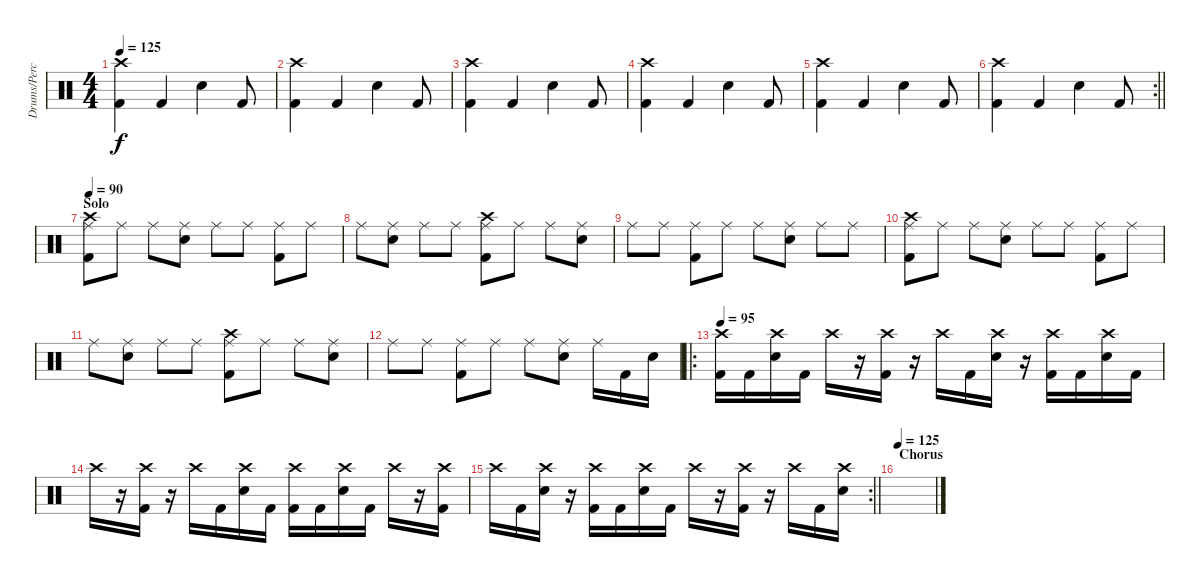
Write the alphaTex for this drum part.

\track ("Drums/Perc" "Drums/Perc") {instrument percussion}
\staff {score}
\articulation defaults
\ts (4 4)
\tempo 125
\clef neutral
\ks c
("Crash high (hit)" "Kick (hit) 2").4{dy f} "Kick (hit) 2".4 "Snare (hit) 2".4 "Kick (hit) 2".8 |
("Crash high (hit)" "Kick (hit) 2").4 "Kick (hit) 2".4 "Snare (hit) 2".4 "Kick (hit) 2".8 |
("Crash high (hit)" "Kick (hit) 2").4 "Kick (hit) 2".4 "Snare (hit) 2".4 "Kick (hit) 2".8 |
("Crash high (hit)" "Kick (hit) 2").4 "Kick (hit) 2".4 "Snare (hit) 2".4 "Kick (hit) 2".8 |
("Crash high (hit)" "Kick (hit) 2").4 "Kick (hit) 2".4 "Snare (hit) 2".4 "Kick (hit) 2".8 |
\rc 2
\barLineRight lightlight
("Crash high (hit)" "Kick (hit) 2").4 "Kick (hit) 2".4 "Snare (hit) 2".4 "Kick (hit) 2".8 |
\section ("" "Solo")
\tempo 90
("Crash high (hit)" "Ride (middle)" "Kick (hit) 2").8 "Ride (middle)".8 "Ride (middle)".8 ("Ride (middle)" "Snare (hit) 2").8 "Ride (middle)".8 "Ride (middle)".8 ("Ride (middle)" "Kick (hit) 2").8 "Ride (middle)".8 |
"Ride (middle)".8 ("Ride (middle)" "Snare (hit) 2").8 "Ride (middle)".8 "Ride (middle)".8 ("Crash high (hit)" "Ride (middle)" "Kick (hit) 2").8 "Ride (middle)".8 "Ride (middle)".8 ("Ride (middle)" "Snare (hit) 2").8 |
"Ride (middle)".8 "Ride (middle)".8 ("Ride (middle)" "Kick (hit) 2").8 "Ride (middle)".8 "Ride (middle)".8 ("Ride (middle)" "Snare (hit) 2").8 "Ride (middle)".8 "Ride (middle)".8 |
("Crash high (hit)" "Ride (middle)" "Kick (hit) 2").8 "Ride (middle)".8 "Ride (middle)".8 ("Ride (middle)" "Snare (hit) 2").8 "Ride (middle)".8 "Ride (middle)".8 ("Ride (middle)" "Kick (hit) 2").8 "Ride (middle)".8 |
"Ride (middle)".8 ("Ride (middle)" "Snare (hit) 2").8 "Ride (middle)".8 "Ride (middle)".8 ("Crash high (hit)" "Ride (middle)" "Kick (hit) 2").8 "Ride (middle)".8 "Ride (middle)".8 ("Ride (middle)" "Snare (hit) 2").8 |
"Ride (middle)".8 "Ride (middle)".8 ("Ride (middle)" "Kick (hit) 2").8 "Ride (middle)".8 "Ride (middle)".8 ("Ride (middle)" "Snare (hit) 2").8 "Ride (middle)".16 "Kick (hit) 2".16 "Snare (hit) 2".16 |
\ro
\tempo 95
("Crash high (hit)" "Kick (hit) 2").16 "Kick (hit) 2".16 ("Crash high (hit)" "Snare (hit) 2").16 "Kick (hit) 2".16 "Crash high (hit)".16 r.16 ("Crash high (hit)" "Kick (hit) 2").16 r.16 "Crash high (hit)".16 "Kick (hit) 2".16 ("Crash high (hit)" "Snare (hit) 2").16 r.16 ("Crash high (hit)" "Kick (hit) 2").16 "Kick (hit) 2".16 ("Crash high (hit)" "Snare (hit) 2").16 "Kick (hit) 2".16 |
"Crash high (hit)".16 r.16 ("Crash high (hit)" "Kick (hit) 2").16 r.16 "Crash high (hit)".16 "Kick (hit) 2".16 ("Crash high (hit)" "Snare (hit) 2").16 "Kick (hit) 2".16 ("Crash high (hit)" "Kick (hit) 2").16 "Kick (hit) 2".16 ("Crash high (hit)" "Snare (hit) 2").16 "Kick (hit) 2".16 "Crash high (hit)".16 r.16 ("Crash high (hit)" "Kick (hit) 2").16 |
\rc 2
\barLineRight lightlight "Crash high (hit)".16 "Kick (hit) 2".16
("Crash high (hit)" "Snare (hit) 2").16 r.16 ("Crash high (hit)" "Kick (hit) 2").16 "Kick (hit) 2".16 ("Crash high (hit)" "Snare (hit) 2").16 "Kick (hit) 2".16 "Crash high (hit)".16 r.16 ("Crash high (hit)" "Kick (hit) 2").16 r.16 "Crash high (hit)".16 "Kick (hit) 2".16 ("Crash high (hit)" "Snare (hit) 2").16 |
\section ("" "Chorus")
\tempo 125
